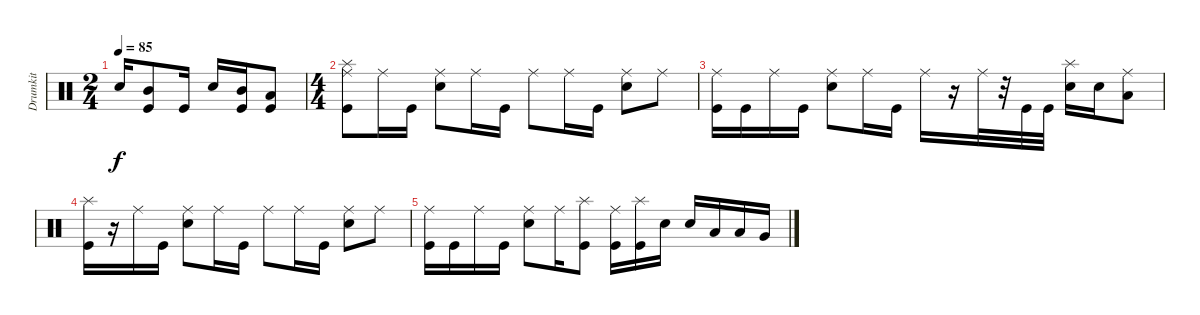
\track ("Drumkit" "Drumkit") {instrument percussion}
\staff {score}
\articulation defaults
\ts (2 4)
\tempo 85
\clef neutral
\ks c "Snare (hit) 2".16{dy f}
("Kick (hit)" "Mid Tom (hit)").8 "Kick (hit)".16 "Snare (hit) 2".16 ("Kick (hit)" "Mid Tom (hit)").16 ("Kick (hit)" "Low Tom (hit)").8 |
\ts (4 4)
("Kick (hit)" "Splash (hit)" "Ride (middle)").8 "Ride (middle)".16 "Kick (hit)".16 ("Snare (hit) 2" "Ride (middle)").8 "Ride (middle)".16 "Kick (hit)".16 "Ride (middle)".8 "Ride (middle)".16 "Kick (hit)".16 ("Snare (hit) 2" "Ride (middle)").8 "Ride (middle)".8 |
("Ride (middle)" "Kick (hit)").16 "Kick (hit)".16 "Ride (middle)".16 "Kick (hit)".16 ("Snare (hit) 2" "Ride (middle)").8 "Ride (middle)".16 "Kick (hit)".16 "Ride (middle)".16 r.16 "Ride (middle)".32 r.32 "Kick (hit)".32 "Kick (hit)".32 ("Snare (hit) 2" "Splash (hit)").16 "Snare (hit) 2".16 ("Low Tom (hit)" "Ride (middle)").8 |
("Kick (hit)" "Splash (hit)").16 r.16 "Ride (middle)".16 "Kick (hit)".16 ("Snare (hit) 2" "Ride (middle)").8 "Ride (middle)".16 "Kick (hit)".16 "Ride (middle)".8 "Ride (middle)".16 "Kick (hit)".16 ("Snare (hit) 2" "Ride (middle)").8 "Ride (middle)".8 |
("Ride (middle)" "Kick (hit)").16 "Kick (hit)".16 "Ride (middle)".16 "Kick (hit)".16 ("Snare (hit) 2" "Ride (middle)").8 "Ride (middle)".16 ("Splash (hit)" "Kick (hit)").8 ("Ride (middle)" "Kick (hit)").16 ("Splash (hit)" "Kick (hit)").16 "Snare (hit) 2".16 "Snare (hit) 2".16 "Low Tom (hit)".16 "Low Tom (hit)".16 "Very Low Tom (hit)".16
